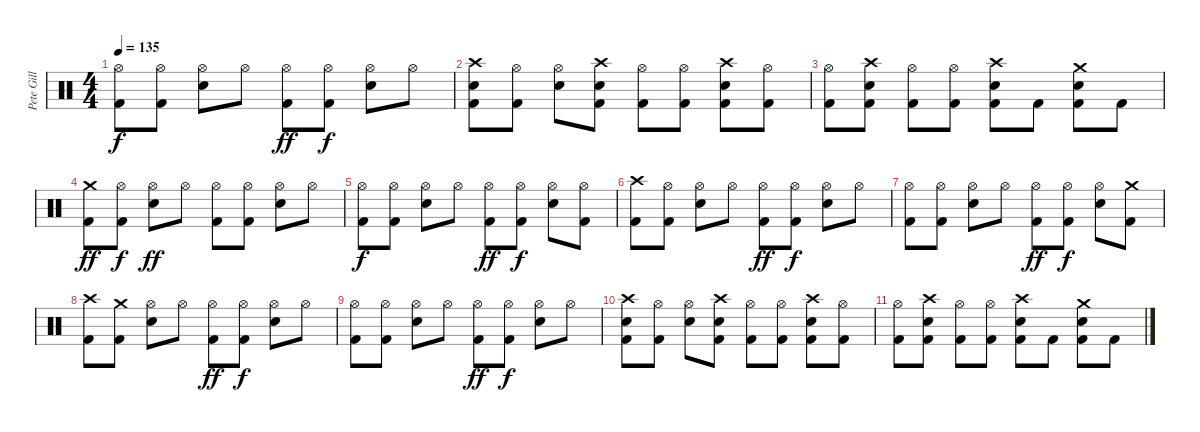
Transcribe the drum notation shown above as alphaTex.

\track ("Pete Gill" "Pete Gill") {instrument percussion}
\staff {score}
\articulation defaults
\ts (4 4)
\tempo 135
\clef neutral
\ks c
("Hi-Hat (open)" "Kick (hit) 2").8{dy f} ("Hi-Hat (open)" "Kick (hit) 2").8 ("Hi-Hat (open)" "Snare (hit) 2").8 "Hi-Hat (open)".8 ("Hi-Hat (open)" "Kick (hit) 2").8{dy ff} ("Hi-Hat (open)" "Kick (hit) 2").8{dy f} ("Hi-Hat (open)" "Snare (hit) 2").8 "Hi-Hat (open)".8 |
("Crash high (hit)" "Snare (hit) 2" "Kick (hit) 2").8 ("Hi-Hat (open)" "Kick (hit) 2").8 ("Hi-Hat (open)" "Snare (hit) 2").8 ("Crash high (hit)" "Snare (hit) 2" "Kick (hit) 2").8 ("Hi-Hat (open)" "Kick (hit) 2").8 ("Hi-Hat (open)" "Kick (hit) 2").8 ("Crash high (hit)" "Snare (hit) 2" "Kick (hit) 2").8 ("Hi-Hat (open)" "Kick (hit) 2").8 |
("Hi-Hat (open)" "Kick (hit) 2").8 ("Crash high (hit)" "Snare (hit) 2" "Kick (hit) 2").8 ("Hi-Hat (open)" "Kick (hit) 2").8 ("Hi-Hat (open)" "Kick (hit) 2").8 ("Crash high (hit)" "Snare (hit) 2" "Kick (hit) 2").8 "Kick (hit) 2".8 ("Snare (hit) 2" "Kick (hit) 2" "Crash medium (hit)").8 "Kick (hit) 2".8 |
("Crash medium (hit)" "Kick (hit) 2").8{dy ff} ("Hi-Hat (open)" "Kick (hit) 2").8{dy f} ("Hi-Hat (open)" "Snare (hit) 2").8{dy ff} "Hi-Hat (open)".8 ("Hi-Hat (open)" "Kick (hit) 2").8 ("Hi-Hat (open)" "Kick (hit) 2").8 ("Hi-Hat (open)" "Snare (hit) 2").8 "Hi-Hat (open)".8 |
("Hi-Hat (open)" "Kick (hit) 2").8{dy f} ("Hi-Hat (open)" "Kick (hit) 2").8 ("Hi-Hat (open)" "Snare (hit) 2").8 "Hi-Hat (open)".8 ("Hi-Hat (open)" "Kick (hit) 2").8{dy ff} ("Hi-Hat (open)" "Kick (hit) 2").8{dy f} ("Hi-Hat (open)" "Snare (hit) 2").8 ("Hi-Hat (open)" "Kick (hit) 2").8 |
("Crash high (hit)" "Kick (hit) 2").8 ("Hi-Hat (open)" "Kick (hit) 2").8 ("Hi-Hat (open)" "Snare (hit) 2").8 "Hi-Hat (open)".8 ("Hi-Hat (open)" "Kick (hit) 2").8{dy ff} ("Hi-Hat (open)" "Kick (hit) 2").8{dy f} ("Hi-Hat (open)" "Snare (hit) 2").8 "Hi-Hat (open)".8 |
("Hi-Hat (open)" "Kick (hit) 2").8 ("Hi-Hat (open)" "Kick (hit) 2").8 ("Hi-Hat (open)" "Snare (hit) 2").8 "Hi-Hat (open)".8 ("Hi-Hat (open)" "Kick (hit) 2").8{dy ff} ("Hi-Hat (open)" "Kick (hit) 2").8{dy f} ("Hi-Hat (open)" "Snare (hit) 2").8 ("Kick (hit) 2" "Crash medium (hit)").8 |
("Crash high (hit)" "Kick (hit) 2").8 ("Crash medium (hit)" "Kick (hit) 2").8 ("Hi-Hat (open)" "Snare (hit) 2").8 "Hi-Hat (open)".8 ("Hi-Hat (open)" "Kick (hit) 2").8{dy ff} ("Hi-Hat (open)" "Kick (hit) 2").8{dy f} ("Hi-Hat (open)" "Snare (hit) 2").8 "Hi-Hat (open)".8 |
("Hi-Hat (open)" "Kick (hit) 2").8 ("Hi-Hat (open)" "Kick (hit) 2").8 ("Hi-Hat (open)" "Snare (hit) 2").8 "Hi-Hat (open)".8 ("Hi-Hat (open)" "Kick (hit) 2").8{dy ff} ("Hi-Hat (open)" "Kick (hit) 2").8{dy f} ("Hi-Hat (open)" "Snare (hit) 2").8 "Hi-Hat (open)".8 |
("Crash high (hit)" "Snare (hit) 2" "Kick (hit) 2").8 ("Hi-Hat (open)" "Kick (hit) 2").8 ("Hi-Hat (open)" "Snare (hit) 2").8 ("Crash high (hit)" "Snare (hit) 2" "Kick (hit) 2").8 ("Hi-Hat (open)" "Kick (hit) 2").8 ("Hi-Hat (open)" "Kick (hit) 2").8 ("Crash high (hit)" "Snare (hit) 2" "Kick (hit) 2").8 ("Hi-Hat (open)" "Kick (hit) 2").8 |
("Hi-Hat (open)" "Kick (hit) 2").8 ("Crash high (hit)" "Snare (hit) 2" "Kick (hit) 2").8 ("Hi-Hat (open)" "Kick (hit) 2").8 ("Hi-Hat (open)" "Kick (hit) 2").8 ("Crash high (hit)" "Snare (hit) 2" "Kick (hit) 2").8 "Kick (hit) 2".8 ("Snare (hit) 2" "Kick (hit) 2" "Crash medium (hit)").8 "Kick (hit) 2".8
